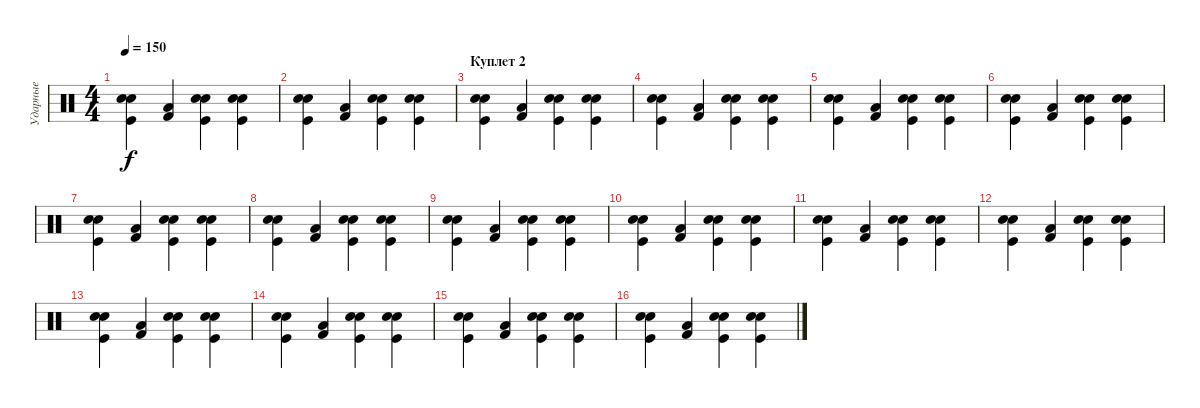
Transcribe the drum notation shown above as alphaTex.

\track ("Ударные" "Ударные") {instrument percussion}
\staff {score}
\articulation defaults
\ts (4 4)
\tempo 150
\clef neutral
\ks c
("Electric Snare (hit)" "Kick (hit)" "Snare (hit) 2").4{dy f} ("Kick (hit) 2" "Low Tom (hit)").4 ("Electric Snare (hit)" "Kick (hit)" "Snare (hit) 2").4 ("Electric Snare (hit)" "Kick (hit)" "Snare (hit) 2").4 |
("Electric Snare (hit)" "Kick (hit)" "Snare (hit) 2").4 ("Kick (hit) 2" "Low Tom (hit)").4 ("Electric Snare (hit)" "Kick (hit)" "Snare (hit) 2").4 ("Electric Snare (hit)" "Kick (hit)" "Snare (hit) 2").4 |
\section ("" "Куплет 2")
("Electric Snare (hit)" "Kick (hit)" "Snare (hit) 2").4 ("Kick (hit) 2" "Low Tom (hit)").4 ("Electric Snare (hit)" "Kick (hit)" "Snare (hit) 2").4 ("Electric Snare (hit)" "Kick (hit)" "Snare (hit) 2").4 |
("Electric Snare (hit)" "Kick (hit)" "Snare (hit) 2").4 ("Kick (hit) 2" "Low Tom (hit)").4 ("Electric Snare (hit)" "Kick (hit)" "Snare (hit) 2").4 ("Electric Snare (hit)" "Kick (hit)" "Snare (hit) 2").4 |
("Electric Snare (hit)" "Kick (hit)" "Snare (hit) 2").4 ("Kick (hit) 2" "Low Tom (hit)").4 ("Electric Snare (hit)" "Kick (hit)" "Snare (hit) 2").4 ("Electric Snare (hit)" "Kick (hit)" "Snare (hit) 2").4 |
("Electric Snare (hit)" "Kick (hit)" "Snare (hit) 2").4 ("Kick (hit) 2" "Low Tom (hit)").4 ("Electric Snare (hit)" "Kick (hit)" "Snare (hit) 2").4 ("Electric Snare (hit)" "Kick (hit)" "Snare (hit) 2").4 |
("Electric Snare (hit)" "Kick (hit)" "Snare (hit) 2").4 ("Kick (hit) 2" "Low Tom (hit)").4 ("Electric Snare (hit)" "Kick (hit)" "Snare (hit) 2").4 ("Electric Snare (hit)" "Kick (hit)" "Snare (hit) 2").4 |
("Electric Snare (hit)" "Kick (hit)" "Snare (hit) 2").4 ("Kick (hit) 2" "Low Tom (hit)").4 ("Electric Snare (hit)" "Kick (hit)" "Snare (hit) 2").4 ("Electric Snare (hit)" "Kick (hit)" "Snare (hit) 2").4 |
("Electric Snare (hit)" "Kick (hit)" "Snare (hit) 2").4 ("Kick (hit) 2" "Low Tom (hit)").4 ("Electric Snare (hit)" "Kick (hit)" "Snare (hit) 2").4 ("Electric Snare (hit)" "Kick (hit)" "Snare (hit) 2").4 |
("Electric Snare (hit)" "Kick (hit)" "Snare (hit) 2").4 ("Kick (hit) 2" "Low Tom (hit)").4 ("Electric Snare (hit)" "Kick (hit)" "Snare (hit) 2").4 ("Electric Snare (hit)" "Kick (hit)" "Snare (hit) 2").4 |
("Electric Snare (hit)" "Kick (hit)" "Snare (hit) 2").4 ("Kick (hit) 2" "Low Tom (hit)").4 ("Electric Snare (hit)" "Kick (hit)" "Snare (hit) 2").4 ("Electric Snare (hit)" "Kick (hit)" "Snare (hit) 2").4 |
("Electric Snare (hit)" "Kick (hit)" "Snare (hit) 2").4 ("Kick (hit) 2" "Low Tom (hit)").4 ("Electric Snare (hit)" "Kick (hit)" "Snare (hit) 2").4 ("Electric Snare (hit)" "Kick (hit)" "Snare (hit) 2").4 |
("Electric Snare (hit)" "Kick (hit)" "Snare (hit) 2").4 ("Kick (hit) 2" "Low Tom (hit)").4 ("Electric Snare (hit)" "Kick (hit)" "Snare (hit) 2").4 ("Electric Snare (hit)" "Kick (hit)" "Snare (hit) 2").4 |
("Electric Snare (hit)" "Kick (hit)" "Snare (hit) 2").4 ("Kick (hit) 2" "Low Tom (hit)").4 ("Electric Snare (hit)" "Kick (hit)" "Snare (hit) 2").4 ("Electric Snare (hit)" "Kick (hit)" "Snare (hit) 2").4 |
("Electric Snare (hit)" "Kick (hit)" "Snare (hit) 2").4 ("Kick (hit) 2" "Low Tom (hit)").4 ("Electric Snare (hit)" "Kick (hit)" "Snare (hit) 2").4 ("Electric Snare (hit)" "Kick (hit)" "Snare (hit) 2").4 |
("Electric Snare (hit)" "Kick (hit)" "Snare (hit) 2").4 ("Kick (hit) 2" "Low Tom (hit)").4 ("Electric Snare (hit)" "Kick (hit)" "Snare (hit) 2").4 ("Electric Snare (hit)" "Kick (hit)" "Snare (hit) 2").4
